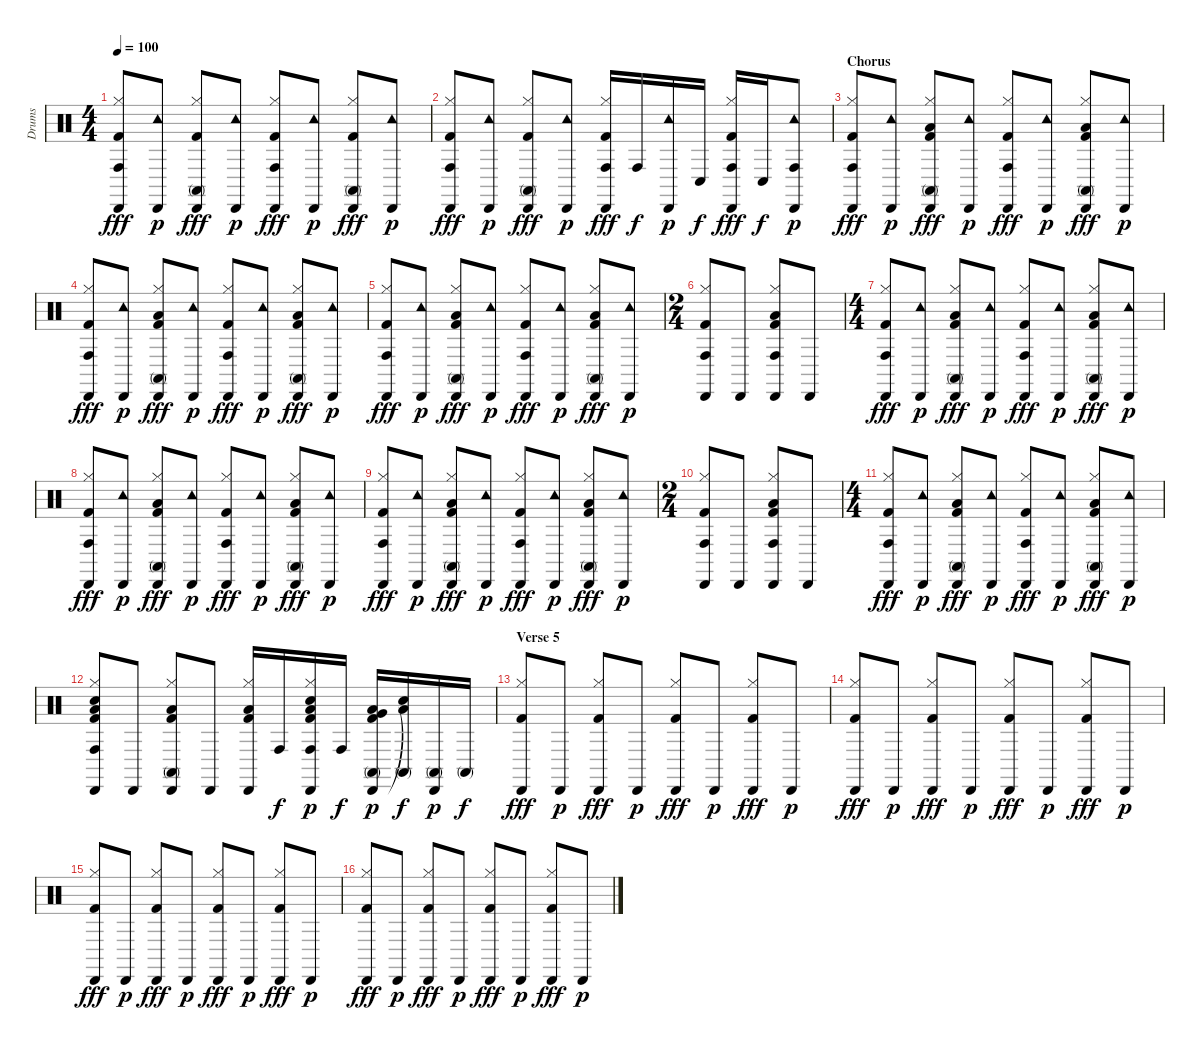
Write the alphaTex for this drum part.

\track ("Drums" "Drums") {instrument percussion}
\staff {score}
\articulation defaults
\ts (4 4)
\tempo 100
\clef neutral
\ks c
("Cabasa (hit)" "Hi-Hat (closed)" "Conga high (hit)" "Kick (hit) 2").8{dy fff} ("Cabasa (hit)" "Tambourine (hit)").8{dy p} ("Cabasa (hit)" "Hi-Hat (closed)" "Conga high (mute)" "Kick (hit) 2").8{dy fff} ("Cabasa (hit)" "Tambourine (hit)").8{dy p} ("Cabasa (hit)" "Hi-Hat (closed)" "Conga high (hit)" "Kick (hit) 2").8{dy fff} ("Cabasa (hit)" "Tambourine (hit)").8{dy p} ("Cabasa (hit)" "Hi-Hat (closed)" "Conga high (mute)" "Kick (hit) 2").8{dy fff} ("Cabasa (hit)" "Tambourine (hit)").8{dy p} |
("Cabasa (hit)" "Hi-Hat (closed)" "Conga high (hit)" "Kick (hit) 2").8{dy fff} ("Cabasa (hit)" "Tambourine (hit)").8{dy p} ("Cabasa (hit)" "Hi-Hat (closed)" "Conga high (mute)" "Kick (hit) 2").8{dy fff} ("Cabasa (hit)" "Tambourine (hit)").8{dy p} ("Cabasa (hit)" "Hi-Hat (closed)" "Conga high (hit)" "Kick (hit) 2").16{dy fff} "Conga high (hit)".16{dy f} ("Cabasa (hit)" "Tambourine (hit)").16{dy p} "Conga low (hit)".16{dy f} ("Cabasa (hit)" "Hi-Hat (closed)" "Conga high (hit)" "Kick (hit) 2").16{dy fff} "Conga low (hit)".16{dy f} ("Cabasa (hit)" "Tambourine (hit)" "Conga high (hit)").8{dy p} |
\section ("" "Chorus")
("Cabasa (hit)" "Hi-Hat (closed)" "Conga high (hit)" "Kick (hit) 2").8{dy fff} ("Cabasa (hit)" "Tambourine (hit)").8{dy p} ("Cabasa (hit)" "Hi-Hat (closed)" "Conga high (mute)" "Low Tom (hit)" "Kick (hit) 2").8{dy fff} ("Cabasa (hit)" "Tambourine (hit)").8{dy p} ("Cabasa (hit)" "Hi-Hat (closed)" "Conga high (hit)" "Kick (hit) 2").8{dy fff} ("Cabasa (hit)" "Tambourine (hit)").8{dy p} ("Cabasa (hit)" "Hi-Hat (closed)" "Conga high (mute)" "Low Tom (hit)" "Kick (hit) 2").8{dy fff} ("Cabasa (hit)" "Tambourine (hit)").8{dy p} |
("Cabasa (hit)" "Hi-Hat (closed)" "Conga high (hit)" "Kick (hit) 2").8{dy fff} ("Cabasa (hit)" "Tambourine (hit)").8{dy p} ("Cabasa (hit)" "Hi-Hat (closed)" "Conga high (mute)" "Low Tom (hit)" "Kick (hit) 2").8{dy fff} ("Cabasa (hit)" "Tambourine (hit)").8{dy p} ("Cabasa (hit)" "Hi-Hat (closed)" "Conga high (hit)" "Kick (hit) 2").8{dy fff} ("Cabasa (hit)" "Tambourine (hit)").8{dy p} ("Cabasa (hit)" "Hi-Hat (closed)" "Conga high (mute)" "Low Tom (hit)" "Kick (hit) 2").8{dy fff} ("Cabasa (hit)" "Tambourine (hit)").8{dy p} |
("Cabasa (hit)" "Hi-Hat (closed)" "Conga high (hit)" "Kick (hit) 2").8{dy fff} ("Cabasa (hit)" "Tambourine (hit)").8{dy p} ("Cabasa (hit)" "Hi-Hat (closed)" "Conga high (mute)" "Low Tom (hit)" "Kick (hit) 2").8{dy fff} ("Cabasa (hit)" "Tambourine (hit)").8{dy p} ("Cabasa (hit)" "Hi-Hat (closed)" "Conga high (hit)" "Kick (hit) 2").8{dy fff} ("Cabasa (hit)" "Tambourine (hit)").8{dy p} ("Cabasa (hit)" "Hi-Hat (closed)" "Conga high (mute)" "Low Tom (hit)" "Kick (hit) 2").8{dy fff} ("Cabasa (hit)" "Tambourine (hit)").8{dy p} |
\ts (2 4)
("Cabasa (hit)" "Hi-Hat (closed)" "Conga high (hit)" "Kick (hit) 2").8 "Cabasa (hit)".8 ("Cabasa (hit)" "Hi-Hat (closed)" "Conga high (hit)" "Low Tom (hit)" "Kick (hit) 2").8 "Cabasa (hit)".8 |
\ts (4 4)
("Cabasa (hit)" "Hi-Hat (closed)" "Conga high (hit)" "Kick (hit) 2").8{dy fff} ("Cabasa (hit)" "Tambourine (hit)").8{dy p} ("Cabasa (hit)" "Hi-Hat (closed)" "Conga high (mute)" "Low Tom (hit)" "Kick (hit) 2").8{dy fff} ("Cabasa (hit)" "Tambourine (hit)").8{dy p} ("Cabasa (hit)" "Hi-Hat (closed)" "Conga high (hit)" "Kick (hit) 2").8{dy fff} ("Cabasa (hit)" "Tambourine (hit)").8{dy p} ("Cabasa (hit)" "Hi-Hat (closed)" "Conga high (mute)" "Low Tom (hit)" "Kick (hit) 2").8{dy fff} ("Cabasa (hit)" "Tambourine (hit)").8{dy p} |
("Cabasa (hit)" "Hi-Hat (closed)" "Conga high (hit)" "Kick (hit) 2").8{dy fff} ("Cabasa (hit)" "Tambourine (hit)").8{dy p} ("Cabasa (hit)" "Hi-Hat (closed)" "Conga high (mute)" "Low Tom (hit)" "Kick (hit) 2").8{dy fff} ("Cabasa (hit)" "Tambourine (hit)").8{dy p} ("Cabasa (hit)" "Hi-Hat (closed)" "Conga high (hit)" "Kick (hit) 2").8{dy fff} ("Cabasa (hit)" "Tambourine (hit)").8{dy p} ("Cabasa (hit)" "Hi-Hat (closed)" "Conga high (mute)" "Low Tom (hit)" "Kick (hit) 2").8{dy fff} ("Cabasa (hit)" "Tambourine (hit)").8{dy p} |
("Cabasa (hit)" "Hi-Hat (closed)" "Conga high (hit)" "Kick (hit) 2").8{dy fff} ("Cabasa (hit)" "Tambourine (hit)").8{dy p} ("Cabasa (hit)" "Hi-Hat (closed)" "Conga high (mute)" "Low Tom (hit)" "Kick (hit) 2").8{dy fff} ("Cabasa (hit)" "Tambourine (hit)").8{dy p} ("Cabasa (hit)" "Hi-Hat (closed)" "Conga high (hit)" "Kick (hit) 2").8{dy fff} ("Cabasa (hit)" "Tambourine (hit)").8{dy p} ("Cabasa (hit)" "Hi-Hat (closed)" "Conga high (mute)" "Low Tom (hit)" "Kick (hit) 2").8{dy fff} ("Cabasa (hit)" "Tambourine (hit)").8{dy p} |
\ts (2 4)
("Cabasa (hit)" "Hi-Hat (closed)" "Conga high (hit)" "Kick (hit) 2").8 "Cabasa (hit)".8 ("Cabasa (hit)" "Hi-Hat (closed)" "Conga high (hit)" "Low Tom (hit)" "Kick (hit) 2").8 "Cabasa (hit)".8 |
\ts (4 4)
("Cabasa (hit)" "Hi-Hat (closed)" "Conga high (hit)" "Kick (hit) 2").8{dy fff} ("Cabasa (hit)" "Tambourine (hit)").8{dy p} ("Cabasa (hit)" "Hi-Hat (closed)" "Conga high (mute)" "Low Tom (hit)" "Kick (hit) 2").8{dy fff} ("Cabasa (hit)" "Tambourine (hit)").8{dy p} ("Cabasa (hit)" "Hi-Hat (closed)" "Conga high (hit)" "Kick (hit) 2").8{dy fff} ("Cabasa (hit)" "Tambourine (hit)").8{dy p} ("Cabasa (hit)" "Hi-Hat (closed)" "Conga high (mute)" "Low Tom (hit)" "Kick (hit) 2").8{dy fff} ("Cabasa (hit)" "Tambourine (hit)").8{dy p} |
("Cabasa (hit)" "Low Tom (hit)" "Hi-Hat (closed)" "Conga high (hit)" "Snare (hit) 2" "Kick (hit) 2").8 "Cabasa (hit)".8 ("Cabasa (hit)" "Low Tom (hit)" "Hi-Hat (closed)" "Conga high (mute)" "Kick (hit) 2").8 "Cabasa (hit)".8 ("Cabasa (hit)" "Low Tom (hit)" "Hi-Hat (closed)" "Kick (hit) 2").16 "Conga high (hit)".16{dy f} ("Cabasa (hit)" "Low Tom (hit)" "Hi-Hat (closed)" "Conga high (hit)" "Snare (hit) 2" "Kick (hit) 2").16{dy p} "Conga high (hit)".16{dy f} ("Cabasa (hit)" "Low Tom (hit)" "Conga high (mute)" "Very Low Tom (hit)" "Kick (hit) 2").16{dy p} ("Snare (hit)"{t} "Conga high (mute)" "Low Tom (hit)").16{dy f} ("Cabasa (hit)" "Conga high (mute)").16{dy p} "Conga high (mute)".16{dy f} |
\section ("" "Verse 5")
("Cabasa (hit)" "Hi-Hat (closed)" "Kick (hit) 2").8{dy fff} "Cabasa (hit)".8{dy p} ("Cabasa (hit)" "Hi-Hat (closed)" "Kick (hit) 2").8{dy fff} "Cabasa (hit)".8{dy p} ("Cabasa (hit)" "Hi-Hat (closed)" "Kick (hit) 2").8{dy fff} "Cabasa (hit)".8{dy p} ("Cabasa (hit)" "Hi-Hat (closed)" "Kick (hit) 2").8{dy fff} "Cabasa (hit)".8{dy p} |
("Cabasa (hit)" "Hi-Hat (closed)" "Kick (hit) 2").8{dy fff} "Cabasa (hit)".8{dy p} ("Cabasa (hit)" "Hi-Hat (closed)" "Kick (hit) 2").8{dy fff} "Cabasa (hit)".8{dy p} ("Cabasa (hit)" "Hi-Hat (closed)" "Kick (hit) 2").8{dy fff} "Cabasa (hit)".8{dy p} ("Cabasa (hit)" "Hi-Hat (closed)" "Kick (hit) 2").8{dy fff} "Cabasa (hit)".8{dy p} |
("Cabasa (hit)" "Hi-Hat (closed)" "Kick (hit) 2").8{dy fff} "Cabasa (hit)".8{dy p} ("Cabasa (hit)" "Hi-Hat (closed)" "Kick (hit) 2").8{dy fff} "Cabasa (hit)".8{dy p} ("Cabasa (hit)" "Hi-Hat (closed)" "Kick (hit) 2").8{dy fff} "Cabasa (hit)".8{dy p} ("Cabasa (hit)" "Hi-Hat (closed)" "Kick (hit) 2").8{dy fff} "Cabasa (hit)".8{dy p} |
("Cabasa (hit)" "Hi-Hat (closed)" "Kick (hit) 2").8{dy fff} "Cabasa (hit)".8{dy p} ("Cabasa (hit)" "Hi-Hat (closed)" "Kick (hit) 2").8{dy fff} "Cabasa (hit)".8{dy p} ("Cabasa (hit)" "Hi-Hat (closed)" "Kick (hit) 2").8{dy fff} "Cabasa (hit)".8{dy p} ("Cabasa (hit)" "Hi-Hat (closed)" "Kick (hit) 2").8{dy fff} "Cabasa (hit)".8{dy p}
